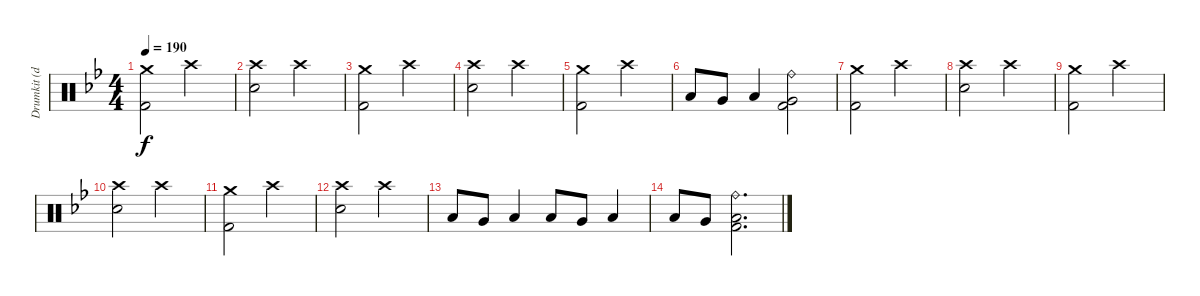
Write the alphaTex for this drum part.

\track ("Drumkit (don't unmute)" "Drumkit (d") {instrument percussion}
\staff {score}
\articulation defaults
\ts (4 4)
\tempo 190
\clef neutral
\ks bb
("Crash medium (hit)" "Kick (hit) 2").2{dy f} "Crash high (hit)".2 |
("Snare (hit) 2" "Crash high (hit)").2 "Crash high (hit)".2 |
("Crash medium (hit)" "Kick (hit) 2").2 "Crash high (hit)".2 |
("Snare (hit) 2" "Crash high (hit)").2 "Crash high (hit)".2 |
("Crash medium (hit)" "Kick (hit) 2").2 "Crash high (hit)".2 |
"Low Tom (hit)".8 "Very Low Tom (hit)".8 "Low Tom (hit)".4 ("Ride (bell)" "Kick (hit) 2" "Very Low Tom (hit)").2 |
("Crash medium (hit)" "Kick (hit) 2").2 "Crash high (hit)".2 |
("Snare (hit) 2" "Crash high (hit)").2 "Crash high (hit)".2 |
("Crash medium (hit)" "Kick (hit) 2").2 "Crash high (hit)".2 |
("Snare (hit) 2" "Crash high (hit)").2 "Crash high (hit)".2 |
("Crash medium (hit)" "Kick (hit) 2").2 "Crash high (hit)".2 |
("Snare (hit) 2" "Crash high (hit)").2 "Crash high (hit)".2 |
"Low Tom (hit)".8 "Very Low Tom (hit)".8 "Low Tom (hit)".4 "Low Tom (hit)".8 "Very Low Tom (hit)".8 "Low Tom (hit)".4 |
"Low Tom (hit)".8 "Very Low Tom (hit)".8 ("Ride (bell)" "Kick (hit) 2" "Low Tom (hit)").2{d}
